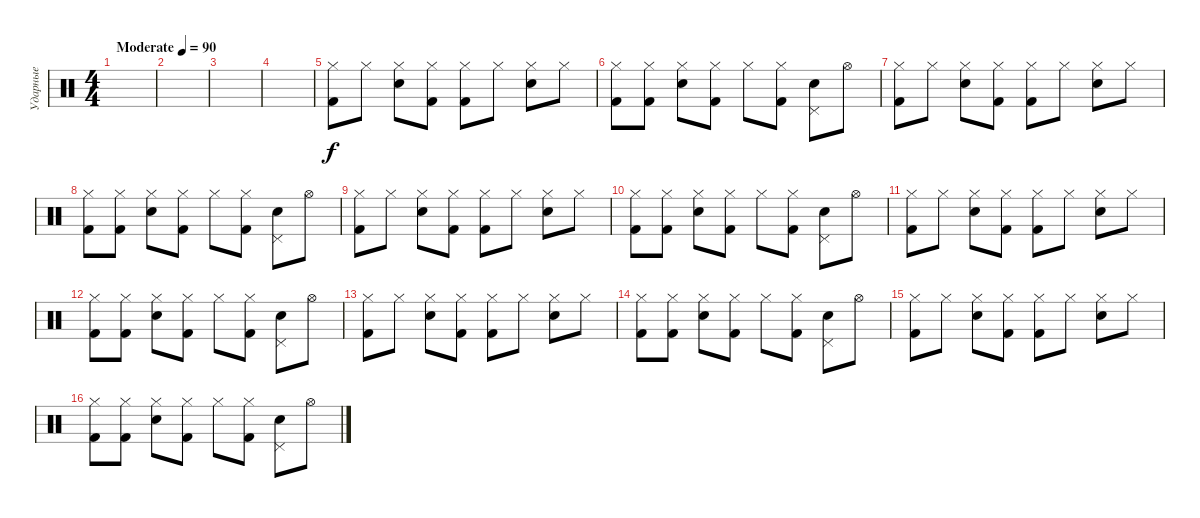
\track ("Ударные" "Ударные") {instrument percussion}
\staff {score}
\articulation defaults
\ts (4 4)
\tempo (90 "Moderate")
\clef neutral
\ks c
|
|
|
|
("Kick (hit) 2" "Hi-Hat (closed)").8 "Hi-Hat (closed)".8 ("Electric Snare (hit)" "Hi-Hat (closed)").8 ("Kick (hit) 2" "Hi-Hat (closed)").8 ("Kick (hit) 2" "Hi-Hat (closed)").8 "Hi-Hat (closed)".8 ("Snare (hit) 2" "Hi-Hat (closed)").8 "Hi-Hat (closed)".8 |
("Kick (hit) 2" "Hi-Hat (closed)").8 ("Kick (hit) 2" "Hi-Hat (closed)").8 ("Electric Snare (hit)" "Hi-Hat (closed)").8 ("Kick (hit) 2" "Hi-Hat (closed)").8 "Hi-Hat (closed)".8 ("Kick (hit) 2" "Hi-Hat (closed)").8 ("Snare (hit) 2" "Pedal Hi-Hat (hit)").8 "Hi-Hat (open)".8 |
("Kick (hit) 2" "Hi-Hat (closed)").8 "Hi-Hat (closed)".8 ("Electric Snare (hit)" "Hi-Hat (closed)").8 ("Kick (hit) 2" "Hi-Hat (closed)").8 ("Kick (hit) 2" "Hi-Hat (closed)").8 "Hi-Hat (closed)".8 ("Snare (hit) 2" "Hi-Hat (closed)").8 "Hi-Hat (closed)".8 |
("Kick (hit) 2" "Hi-Hat (closed)").8 ("Kick (hit) 2" "Hi-Hat (closed)").8 ("Electric Snare (hit)" "Hi-Hat (closed)").8 ("Kick (hit) 2" "Hi-Hat (closed)").8 "Hi-Hat (closed)".8 ("Kick (hit) 2" "Hi-Hat (closed)").8 ("Snare (hit) 2" "Pedal Hi-Hat (hit)").8 "Hi-Hat (open)".8 |
("Kick (hit) 2" "Hi-Hat (closed)").8 "Hi-Hat (closed)".8 ("Electric Snare (hit)" "Hi-Hat (closed)").8 ("Kick (hit) 2" "Hi-Hat (closed)").8 ("Kick (hit) 2" "Hi-Hat (closed)").8 "Hi-Hat (closed)".8 ("Snare (hit) 2" "Hi-Hat (closed)").8 "Hi-Hat (closed)".8 |
("Kick (hit) 2" "Hi-Hat (closed)").8 ("Kick (hit) 2" "Hi-Hat (closed)").8 ("Electric Snare (hit)" "Hi-Hat (closed)").8 ("Kick (hit) 2" "Hi-Hat (closed)").8 "Hi-Hat (closed)".8 ("Kick (hit) 2" "Hi-Hat (closed)").8 ("Snare (hit) 2" "Pedal Hi-Hat (hit)").8 "Hi-Hat (open)".8 |
("Kick (hit) 2" "Hi-Hat (closed)").8 "Hi-Hat (closed)".8 ("Electric Snare (hit)" "Hi-Hat (closed)").8 ("Kick (hit) 2" "Hi-Hat (closed)").8 ("Kick (hit) 2" "Hi-Hat (closed)").8 "Hi-Hat (closed)".8 ("Snare (hit) 2" "Hi-Hat (closed)").8 "Hi-Hat (closed)".8 |
("Kick (hit) 2" "Hi-Hat (closed)").8 ("Kick (hit) 2" "Hi-Hat (closed)").8 ("Electric Snare (hit)" "Hi-Hat (closed)").8 ("Kick (hit) 2" "Hi-Hat (closed)").8 "Hi-Hat (closed)".8 ("Kick (hit) 2" "Hi-Hat (closed)").8 ("Snare (hit) 2" "Pedal Hi-Hat (hit)").8 "Hi-Hat (open)".8 |
("Kick (hit) 2" "Hi-Hat (closed)").8 "Hi-Hat (closed)".8 ("Electric Snare (hit)" "Hi-Hat (closed)").8 ("Kick (hit) 2" "Hi-Hat (closed)").8 ("Kick (hit) 2" "Hi-Hat (closed)").8 "Hi-Hat (closed)".8 ("Snare (hit) 2" "Hi-Hat (closed)").8 "Hi-Hat (closed)".8 |
("Kick (hit) 2" "Hi-Hat (closed)").8 ("Kick (hit) 2" "Hi-Hat (closed)").8 ("Electric Snare (hit)" "Hi-Hat (closed)").8 ("Kick (hit) 2" "Hi-Hat (closed)").8 "Hi-Hat (closed)".8 ("Kick (hit) 2" "Hi-Hat (closed)").8 ("Snare (hit) 2" "Pedal Hi-Hat (hit)").8 "Hi-Hat (open)".8 |
("Kick (hit) 2" "Hi-Hat (closed)").8 "Hi-Hat (closed)".8 ("Electric Snare (hit)" "Hi-Hat (closed)").8 ("Kick (hit) 2" "Hi-Hat (closed)").8 ("Kick (hit) 2" "Hi-Hat (closed)").8 "Hi-Hat (closed)".8 ("Snare (hit) 2" "Hi-Hat (closed)").8 "Hi-Hat (closed)".8 |
("Kick (hit) 2" "Hi-Hat (closed)").8 ("Kick (hit) 2" "Hi-Hat (closed)").8 ("Electric Snare (hit)" "Hi-Hat (closed)").8 ("Kick (hit) 2" "Hi-Hat (closed)").8 "Hi-Hat (closed)".8 ("Kick (hit) 2" "Hi-Hat (closed)").8 ("Snare (hit) 2" "Pedal Hi-Hat (hit)").8 "Hi-Hat (open)".8
